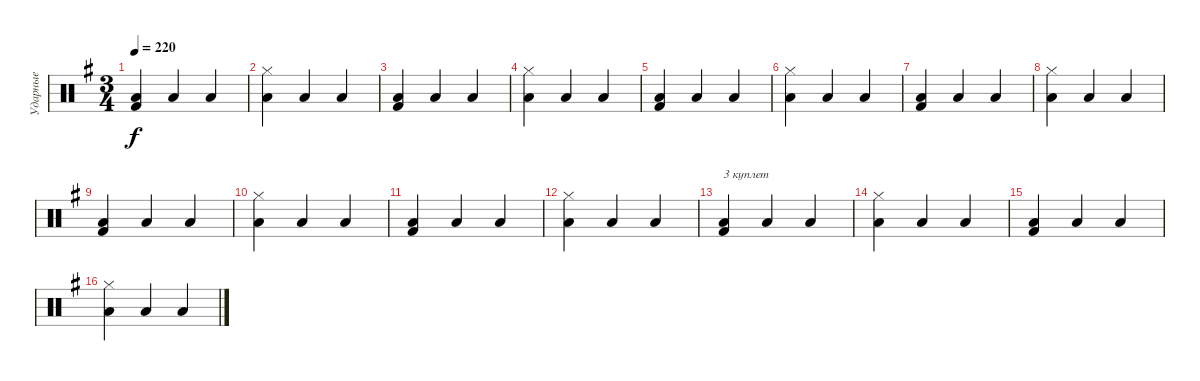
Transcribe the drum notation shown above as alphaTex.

\track ("Ударные" "Ударные") {instrument percussion}
\staff {score}
\articulation defaults
\ts (3 4)
\tempo 220
\clef neutral
\ks eminor
("Kick (hit) 2" "Low Tom (hit)").4{dy f} "Low Tom (hit)".4 "Low Tom (hit)".4 |
("Hi-Hat (closed)" "Low Tom (hit)").4 "Low Tom (hit)".4 "Low Tom (hit)".4 |
("Kick (hit) 2" "Low Tom (hit)").4 "Low Tom (hit)".4 "Low Tom (hit)".4 |
("Hi-Hat (closed)" "Low Tom (hit)").4 "Low Tom (hit)".4 "Low Tom (hit)".4 |
("Kick (hit) 2" "Low Tom (hit)").4 "Low Tom (hit)".4 "Low Tom (hit)".4 |
("Hi-Hat (closed)" "Low Tom (hit)").4 "Low Tom (hit)".4 "Low Tom (hit)".4 |
("Kick (hit) 2" "Low Tom (hit)").4 "Low Tom (hit)".4 "Low Tom (hit)".4 |
("Hi-Hat (closed)" "Low Tom (hit)").4 "Low Tom (hit)".4 "Low Tom (hit)".4 |
("Kick (hit) 2" "Low Tom (hit)").4 "Low Tom (hit)".4 "Low Tom (hit)".4 |
("Hi-Hat (closed)" "Low Tom (hit)").4 "Low Tom (hit)".4 "Low Tom (hit)".4 |
("Kick (hit) 2" "Low Tom (hit)").4 "Low Tom (hit)".4 "Low Tom (hit)".4 |
("Hi-Hat (closed)" "Low Tom (hit)").4 "Low Tom (hit)".4 "Low Tom (hit)".4 |
("Kick (hit) 2" "Low Tom (hit)").4{txt "3 куплет"} "Low Tom (hit)".4 "Low Tom (hit)".4 |
("Hi-Hat (closed)" "Low Tom (hit)").4 "Low Tom (hit)".4 "Low Tom (hit)".4 |
("Kick (hit) 2" "Low Tom (hit)").4 "Low Tom (hit)".4 "Low Tom (hit)".4 |
("Hi-Hat (closed)" "Low Tom (hit)").4 "Low Tom (hit)".4 "Low Tom (hit)".4
